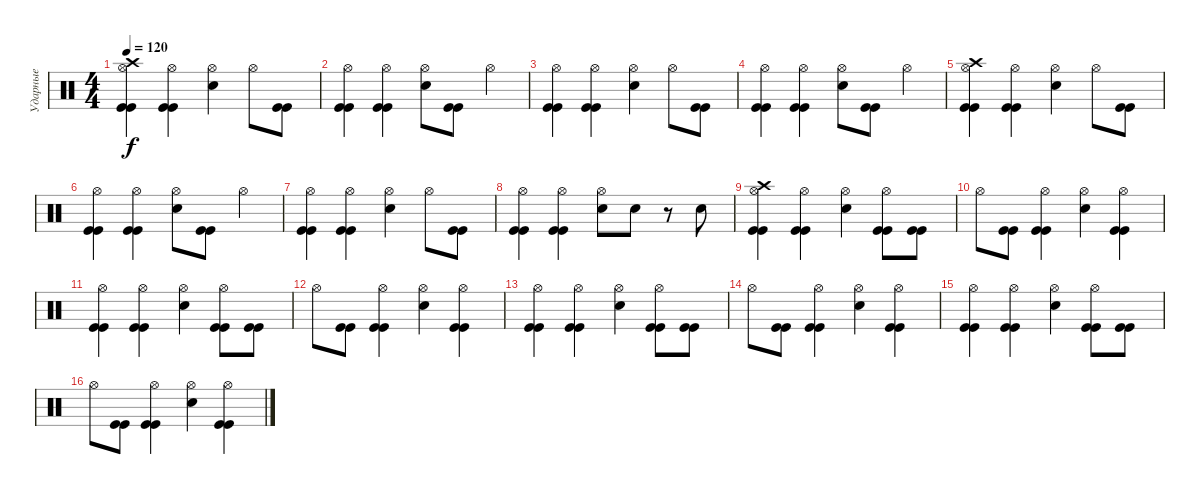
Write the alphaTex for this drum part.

\track ("Ударные" "Ударные") {instrument percussion}
\staff {score}
\articulation defaults
\ts (4 4)
\tempo 120
\clef neutral
\ks c
("Crash high (hit)" "Hi-Hat (open)" "Kick (hit)" "Kick (hit)").4{dy f} ("Hi-Hat (open)" "Kick (hit)" "Kick (hit)").4 ("Snare (hit) 2" "Hi-Hat (open)").4 "Hi-Hat (open)".8 ("Kick (hit)" "Kick (hit)").8 |
("Hi-Hat (open)" "Kick (hit)" "Kick (hit)").4 ("Hi-Hat (open)" "Kick (hit)" "Kick (hit)").4 ("Snare (hit) 2" "Hi-Hat (open)").8 ("Kick (hit)" "Kick (hit)").8 "Hi-Hat (open)".4 |
("Hi-Hat (open)" "Kick (hit)" "Kick (hit)").4 ("Hi-Hat (open)" "Kick (hit)" "Kick (hit)").4 ("Snare (hit) 2" "Hi-Hat (open)").4 "Hi-Hat (open)".8 ("Kick (hit)" "Kick (hit)").8 |
("Hi-Hat (open)" "Kick (hit)" "Kick (hit)").4 ("Hi-Hat (open)" "Kick (hit)" "Kick (hit)").4 ("Snare (hit) 2" "Hi-Hat (open)").8 ("Kick (hit)" "Kick (hit)").8 "Hi-Hat (open)".4 |
("Crash high (hit)" "Hi-Hat (open)" "Kick (hit)" "Kick (hit)").4 ("Hi-Hat (open)" "Kick (hit)" "Kick (hit)").4 ("Snare (hit) 2" "Hi-Hat (open)").4 "Hi-Hat (open)".8 ("Kick (hit)" "Kick (hit)").8 |
("Hi-Hat (open)" "Kick (hit)" "Kick (hit)").4 ("Hi-Hat (open)" "Kick (hit)" "Kick (hit)").4 ("Snare (hit) 2" "Hi-Hat (open)").8 ("Kick (hit)" "Kick (hit)").8 "Hi-Hat (open)".4 |
("Hi-Hat (open)" "Kick (hit)" "Kick (hit)").4 ("Hi-Hat (open)" "Kick (hit)" "Kick (hit)").4 ("Snare (hit) 2" "Hi-Hat (open)").4 "Hi-Hat (open)".8 ("Kick (hit)" "Kick (hit)").8 |
("Hi-Hat (open)" "Kick (hit)" "Kick (hit)").4 ("Hi-Hat (open)" "Kick (hit)" "Kick (hit)").4 ("Snare (hit) 2" "Hi-Hat (open)").8 "Snare (hit) 2".8 r.8 "Snare (hit) 2".8 |
("Crash high (hit)" "Hi-Hat (open)" "Kick (hit)" "Kick (hit)").4 ("Hi-Hat (open)" "Kick (hit)" "Kick (hit)").4 ("Snare (hit) 2" "Hi-Hat (open)").4 ("Hi-Hat (open)" "Kick (hit)" "Kick (hit)").8 ("Kick (hit)" "Kick (hit)").8 |
"Hi-Hat (open)".8 ("Kick (hit)" "Kick (hit)").8 ("Hi-Hat (open)" "Kick (hit)" "Kick (hit)").4 ("Snare (hit) 2" "Hi-Hat (open)").4 ("Hi-Hat (open)" "Kick (hit)" "Kick (hit)").4 |
("Hi-Hat (open)" "Kick (hit)" "Kick (hit)").4 ("Hi-Hat (open)" "Kick (hit)" "Kick (hit)").4 ("Snare (hit) 2" "Hi-Hat (open)").4 ("Hi-Hat (open)" "Kick (hit)" "Kick (hit)").8 ("Kick (hit)" "Kick (hit)").8 |
"Hi-Hat (open)".8 ("Kick (hit)" "Kick (hit)").8 ("Hi-Hat (open)" "Kick (hit)" "Kick (hit)").4 ("Snare (hit) 2" "Hi-Hat (open)").4 ("Hi-Hat (open)" "Kick (hit)" "Kick (hit)").4 |
("Hi-Hat (open)" "Kick (hit)" "Kick (hit)").4 ("Hi-Hat (open)" "Kick (hit)" "Kick (hit)").4 ("Snare (hit) 2" "Hi-Hat (open)").4 ("Hi-Hat (open)" "Kick (hit)" "Kick (hit)").8 ("Kick (hit)" "Kick (hit)").8 |
"Hi-Hat (open)".8 ("Kick (hit)" "Kick (hit)").8 ("Hi-Hat (open)" "Kick (hit)" "Kick (hit)").4 ("Snare (hit) 2" "Hi-Hat (open)").4 ("Hi-Hat (open)" "Kick (hit)" "Kick (hit)").4 |
("Hi-Hat (open)" "Kick (hit)" "Kick (hit)").4 ("Hi-Hat (open)" "Kick (hit)" "Kick (hit)").4 ("Snare (hit) 2" "Hi-Hat (open)").4 ("Hi-Hat (open)" "Kick (hit)" "Kick (hit)").8 ("Kick (hit)" "Kick (hit)").8 |
"Hi-Hat (open)".8 ("Kick (hit)" "Kick (hit)").8 ("Hi-Hat (open)" "Kick (hit)" "Kick (hit)").4 ("Snare (hit) 2" "Hi-Hat (open)").4 ("Hi-Hat (open)" "Kick (hit)" "Kick (hit)").4
